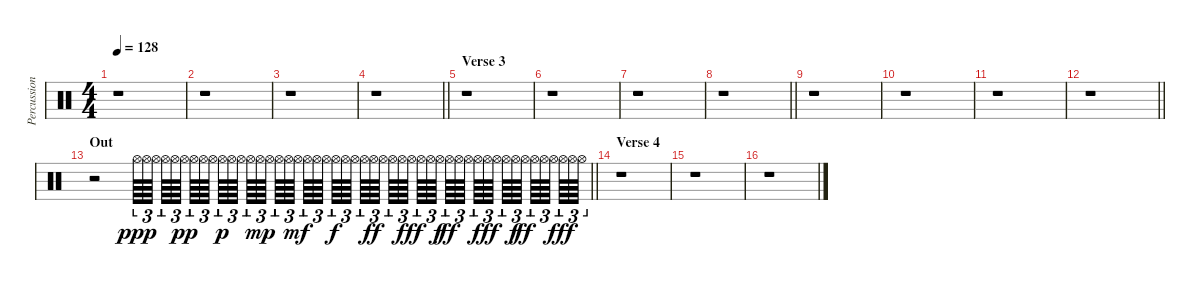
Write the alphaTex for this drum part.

\track ("Percussion" "Percussion") {instrument percussion}
\staff {score}
\articulation defaults
\ts (4 4)
\tempo 128
\clef neutral
\ks c
r.1{dy fff} |
r.1 |
r.1 |
\barLineRight lightlight
r.1 |
\section ("" "Verse 3")
r.1 |
r.1 |
r.1 |
\barLineRight lightlight
r.1 |
r.1 |
r.1 |
r.1 |
\barLineRight lightlight
r.1 |
\section ("" "Out")
\barLineRight lightlight
r.2 "Hi-Hat (open)".64{tu (3 2) dy ppp} "Hi-Hat (open)".64{tu (3 2)} "Hi-Hat (open)".64{tu (3 2)} "Hi-Hat (open)".64{tu (3 2)} "Hi-Hat (open)".64{tu (3 2)} "Hi-Hat (open)".64{tu (3 2) dy pp} "Hi-Hat (open)".64{tu (3 2)} "Hi-Hat (open)".64{tu (3 2)} "Hi-Hat (open)".64{tu (3 2)} "Hi-Hat (open)".64{tu (3 2) dy p} "Hi-Hat (open)".64{tu (3 2)} "Hi-Hat (open)".64{tu (3 2)} "Hi-Hat (open)".64{tu (3 2)} "Hi-Hat (open)".64{tu (3 2) dy mp} "Hi-Hat (open)".64{tu (3 2)} "Hi-Hat (open)".64{tu (3 2)} "Hi-Hat (open)".64{tu (3 2)} "Hi-Hat (open)".64{tu (3 2) dy mf} "Hi-Hat (open)".64{tu (3 2)} "Hi-Hat (open)".64{tu (3 2)} "Hi-Hat (open)".64{tu (3 2)} "Hi-Hat (open)".64{tu (3 2) dy f} "Hi-Hat (open)".64{tu (3 2)} "Hi-Hat (open)".64{tu (3 2)} "Hi-Hat (open)".64{tu (3 2)} "Hi-Hat (open)".64{tu (3 2) dy ff} "Hi-Hat (open)".64{tu (3 2)} "Hi-Hat (open)".64{tu (3 2)} "Hi-Hat (open)".64{tu (3 2)} "Hi-Hat (open)".64{tu (3 2) dy fff} "Hi-Hat (open)".64{tu (3 2)} "Hi-Hat (open)".64{tu (3 2)} "Hi-Hat (open)".64{tu (3 2) dy f} "Hi-Hat (open)".64{tu (3 2) dy ff} "Hi-Hat (open)".64{tu (3 2)} "Hi-Hat (open)".64{tu (3 2)} "Hi-Hat (open)".64{tu (3 2)} "Hi-Hat (open)".64{tu (3 2) dy fff} "Hi-Hat (open)".64{tu (3 2)} "Hi-Hat (open)".64{tu (3 2)} "Hi-Hat (open)".64{tu (3 2) dy f} "Hi-Hat (open)".64{tu (3 2) dy ff} "Hi-Hat (open)".64{tu (3 2)} "Hi-Hat (open)".64{tu (3 2)} "Hi-Hat (open)".64{tu (3 2)} "Hi-Hat (open)".64{tu (3 2) dy fff} "Hi-Hat (open)".64{tu (3 2)} "Hi-Hat (open)".64{tu (3 2)} |
\section ("" "Verse 4")
r.1 |
r.1 |
r.1
